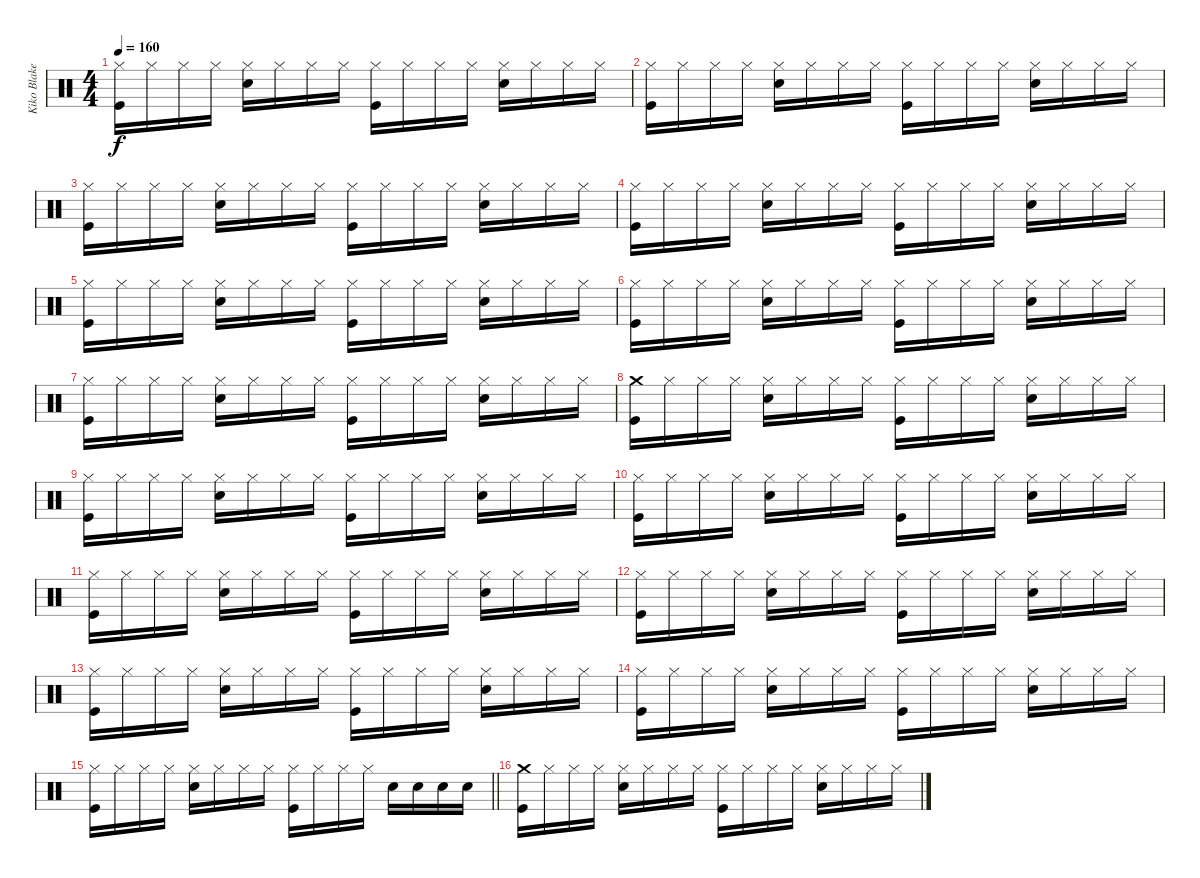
\track ("Kiko Blake" "Kiko Blake") {instrument percussion}
\staff {score}
\articulation defaults
\ts (4 4)
\tempo 160
\clef neutral
\ks c
("Hi-Hat (closed)" "Kick (hit)").16{dy f} "Hi-Hat (closed)".16 "Hi-Hat (closed)".16 "Hi-Hat (closed)".16 ("Hi-Hat (closed)" "Snare (hit) 2").16 "Hi-Hat (closed)".16 "Hi-Hat (closed)".16 "Hi-Hat (closed)".16 ("Hi-Hat (closed)" "Kick (hit)").16 "Hi-Hat (closed)".16 "Hi-Hat (closed)".16 "Hi-Hat (closed)".16 ("Hi-Hat (closed)" "Snare (hit) 2").16 "Hi-Hat (closed)".16 "Hi-Hat (closed)".16 "Hi-Hat (closed)".16 |
("Hi-Hat (closed)" "Kick (hit)").16 "Hi-Hat (closed)".16 "Hi-Hat (closed)".16 "Hi-Hat (closed)".16 ("Hi-Hat (closed)" "Snare (hit) 2").16 "Hi-Hat (closed)".16 "Hi-Hat (closed)".16 "Hi-Hat (closed)".16 ("Hi-Hat (closed)" "Kick (hit)").16 "Hi-Hat (closed)".16 "Hi-Hat (closed)".16 "Hi-Hat (closed)".16 ("Hi-Hat (closed)" "Snare (hit) 2").16 "Hi-Hat (closed)".16 "Hi-Hat (closed)".16 "Hi-Hat (closed)".16 |
("Hi-Hat (closed)" "Kick (hit)").16 "Hi-Hat (closed)".16 "Hi-Hat (closed)".16 "Hi-Hat (closed)".16 ("Hi-Hat (closed)" "Snare (hit) 2").16 "Hi-Hat (closed)".16 "Hi-Hat (closed)".16 "Hi-Hat (closed)".16 ("Hi-Hat (closed)" "Kick (hit)").16 "Hi-Hat (closed)".16 "Hi-Hat (closed)".16 "Hi-Hat (closed)".16 ("Hi-Hat (closed)" "Snare (hit) 2").16 "Hi-Hat (closed)".16 "Hi-Hat (closed)".16 "Hi-Hat (closed)".16 |
("Hi-Hat (closed)" "Kick (hit)").16 "Hi-Hat (closed)".16 "Hi-Hat (closed)".16 "Hi-Hat (closed)".16 ("Hi-Hat (closed)" "Snare (hit) 2").16 "Hi-Hat (closed)".16 "Hi-Hat (closed)".16 "Hi-Hat (closed)".16 ("Hi-Hat (closed)" "Kick (hit)").16 "Hi-Hat (closed)".16 "Hi-Hat (closed)".16 "Hi-Hat (closed)".16 ("Hi-Hat (closed)" "Snare (hit) 2").16 "Hi-Hat (closed)".16 "Hi-Hat (closed)".16 "Hi-Hat (closed)".16 |
("Hi-Hat (closed)" "Kick (hit)").16 "Hi-Hat (closed)".16 "Hi-Hat (closed)".16 "Hi-Hat (closed)".16 ("Hi-Hat (closed)" "Snare (hit) 2").16 "Hi-Hat (closed)".16 "Hi-Hat (closed)".16 "Hi-Hat (closed)".16 ("Hi-Hat (closed)" "Kick (hit)").16 "Hi-Hat (closed)".16 "Hi-Hat (closed)".16 "Hi-Hat (closed)".16 ("Hi-Hat (closed)" "Snare (hit) 2").16 "Hi-Hat (closed)".16 "Hi-Hat (closed)".16 "Hi-Hat (closed)".16 |
("Hi-Hat (closed)" "Kick (hit)").16 "Hi-Hat (closed)".16 "Hi-Hat (closed)".16 "Hi-Hat (closed)".16 ("Hi-Hat (closed)" "Snare (hit) 2").16 "Hi-Hat (closed)".16 "Hi-Hat (closed)".16 "Hi-Hat (closed)".16 ("Hi-Hat (closed)" "Kick (hit)").16 "Hi-Hat (closed)".16 "Hi-Hat (closed)".16 "Hi-Hat (closed)".16 ("Hi-Hat (closed)" "Snare (hit) 2").16 "Hi-Hat (closed)".16 "Hi-Hat (closed)".16 "Hi-Hat (closed)".16 |
("Hi-Hat (closed)" "Kick (hit)").16 "Hi-Hat (closed)".16 "Hi-Hat (closed)".16 "Hi-Hat (closed)".16 ("Hi-Hat (closed)" "Snare (hit) 2").16 "Hi-Hat (closed)".16 "Hi-Hat (closed)".16 "Hi-Hat (closed)".16 ("Hi-Hat (closed)" "Kick (hit)").16 "Hi-Hat (closed)".16 "Hi-Hat (closed)".16 "Hi-Hat (closed)".16 ("Hi-Hat (closed)" "Snare (hit) 2").16 "Hi-Hat (closed)".16 "Hi-Hat (closed)".16 "Hi-Hat (closed)".16 |
("Crash medium (hit)" "Kick (hit)").16 "Hi-Hat (closed)".16 "Hi-Hat (closed)".16 "Hi-Hat (closed)".16 ("Hi-Hat (closed)" "Snare (hit) 2").16 "Hi-Hat (closed)".16 "Hi-Hat (closed)".16 "Hi-Hat (closed)".16 ("Hi-Hat (closed)" "Kick (hit)").16 "Hi-Hat (closed)".16 "Hi-Hat (closed)".16 "Hi-Hat (closed)".16 ("Hi-Hat (closed)" "Snare (hit) 2").16 "Hi-Hat (closed)".16 "Hi-Hat (closed)".16 "Hi-Hat (closed)".16 |
("Hi-Hat (closed)" "Kick (hit)").16 "Hi-Hat (closed)".16 "Hi-Hat (closed)".16 "Hi-Hat (closed)".16 ("Hi-Hat (closed)" "Snare (hit) 2").16 "Hi-Hat (closed)".16 "Hi-Hat (closed)".16 "Hi-Hat (closed)".16 ("Hi-Hat (closed)" "Kick (hit)").16 "Hi-Hat (closed)".16 "Hi-Hat (closed)".16 "Hi-Hat (closed)".16 ("Hi-Hat (closed)" "Snare (hit) 2").16 "Hi-Hat (closed)".16 "Hi-Hat (closed)".16 "Hi-Hat (closed)".16 |
("Hi-Hat (closed)" "Kick (hit)").16 "Hi-Hat (closed)".16 "Hi-Hat (closed)".16 "Hi-Hat (closed)".16 ("Hi-Hat (closed)" "Snare (hit) 2").16 "Hi-Hat (closed)".16 "Hi-Hat (closed)".16 "Hi-Hat (closed)".16 ("Hi-Hat (closed)" "Kick (hit)").16 "Hi-Hat (closed)".16 "Hi-Hat (closed)".16 "Hi-Hat (closed)".16 ("Hi-Hat (closed)" "Snare (hit) 2").16 "Hi-Hat (closed)".16 "Hi-Hat (closed)".16 "Hi-Hat (closed)".16 |
("Hi-Hat (closed)" "Kick (hit)").16 "Hi-Hat (closed)".16 "Hi-Hat (closed)".16 "Hi-Hat (closed)".16 ("Hi-Hat (closed)" "Snare (hit) 2").16 "Hi-Hat (closed)".16 "Hi-Hat (closed)".16 "Hi-Hat (closed)".16 ("Hi-Hat (closed)" "Kick (hit)").16 "Hi-Hat (closed)".16 "Hi-Hat (closed)".16 "Hi-Hat (closed)".16 ("Hi-Hat (closed)" "Snare (hit) 2").16 "Hi-Hat (closed)".16 "Hi-Hat (closed)".16 "Hi-Hat (closed)".16 |
("Hi-Hat (closed)" "Kick (hit)").16 "Hi-Hat (closed)".16 "Hi-Hat (closed)".16 "Hi-Hat (closed)".16 ("Hi-Hat (closed)" "Snare (hit) 2").16 "Hi-Hat (closed)".16 "Hi-Hat (closed)".16 "Hi-Hat (closed)".16 ("Hi-Hat (closed)" "Kick (hit)").16 "Hi-Hat (closed)".16 "Hi-Hat (closed)".16 "Hi-Hat (closed)".16 ("Hi-Hat (closed)" "Snare (hit) 2").16 "Hi-Hat (closed)".16 "Hi-Hat (closed)".16 "Hi-Hat (closed)".16 |
("Hi-Hat (closed)" "Kick (hit)").16 "Hi-Hat (closed)".16 "Hi-Hat (closed)".16 "Hi-Hat (closed)".16 ("Hi-Hat (closed)" "Snare (hit) 2").16 "Hi-Hat (closed)".16 "Hi-Hat (closed)".16 "Hi-Hat (closed)".16 ("Hi-Hat (closed)" "Kick (hit)").16 "Hi-Hat (closed)".16 "Hi-Hat (closed)".16 "Hi-Hat (closed)".16 ("Hi-Hat (closed)" "Snare (hit) 2").16 "Hi-Hat (closed)".16 "Hi-Hat (closed)".16 "Hi-Hat (closed)".16 |
("Hi-Hat (closed)" "Kick (hit)").16 "Hi-Hat (closed)".16 "Hi-Hat (closed)".16 "Hi-Hat (closed)".16 ("Hi-Hat (closed)" "Snare (hit) 2").16 "Hi-Hat (closed)".16 "Hi-Hat (closed)".16 "Hi-Hat (closed)".16 ("Hi-Hat (closed)" "Kick (hit)").16 "Hi-Hat (closed)".16 "Hi-Hat (closed)".16 "Hi-Hat (closed)".16 ("Hi-Hat (closed)" "Snare (hit) 2").16 "Hi-Hat (closed)".16 "Hi-Hat (closed)".16 "Hi-Hat (closed)".16 |
\barLineRight lightlight
("Hi-Hat (closed)" "Kick (hit)").16 "Hi-Hat (closed)".16 "Hi-Hat (closed)".16 "Hi-Hat (closed)".16 ("Hi-Hat (closed)" "Snare (hit) 2").16 "Hi-Hat (closed)".16 "Hi-Hat (closed)".16 "Hi-Hat (closed)".16 ("Hi-Hat (closed)" "Kick (hit)").16 "Hi-Hat (closed)".16 "Hi-Hat (closed)".16 "Hi-Hat (closed)".16 "Snare (hit) 2".16 "Snare (hit) 2".16 "Snare (hit) 2".16 "Snare (hit) 2".16 |
("Crash medium (hit)" "Kick (hit)").16 "Hi-Hat (closed)".16 "Hi-Hat (closed)".16 "Hi-Hat (closed)".16 ("Hi-Hat (closed)" "Snare (hit) 2").16 "Hi-Hat (closed)".16 "Hi-Hat (closed)".16 "Hi-Hat (closed)".16 ("Hi-Hat (closed)" "Kick (hit)").16 "Hi-Hat (closed)".16 "Hi-Hat (closed)".16 "Hi-Hat (closed)".16 ("Hi-Hat (closed)" "Snare (hit) 2").16 "Hi-Hat (closed)".16 "Hi-Hat (closed)".16 "Hi-Hat (closed)".16
